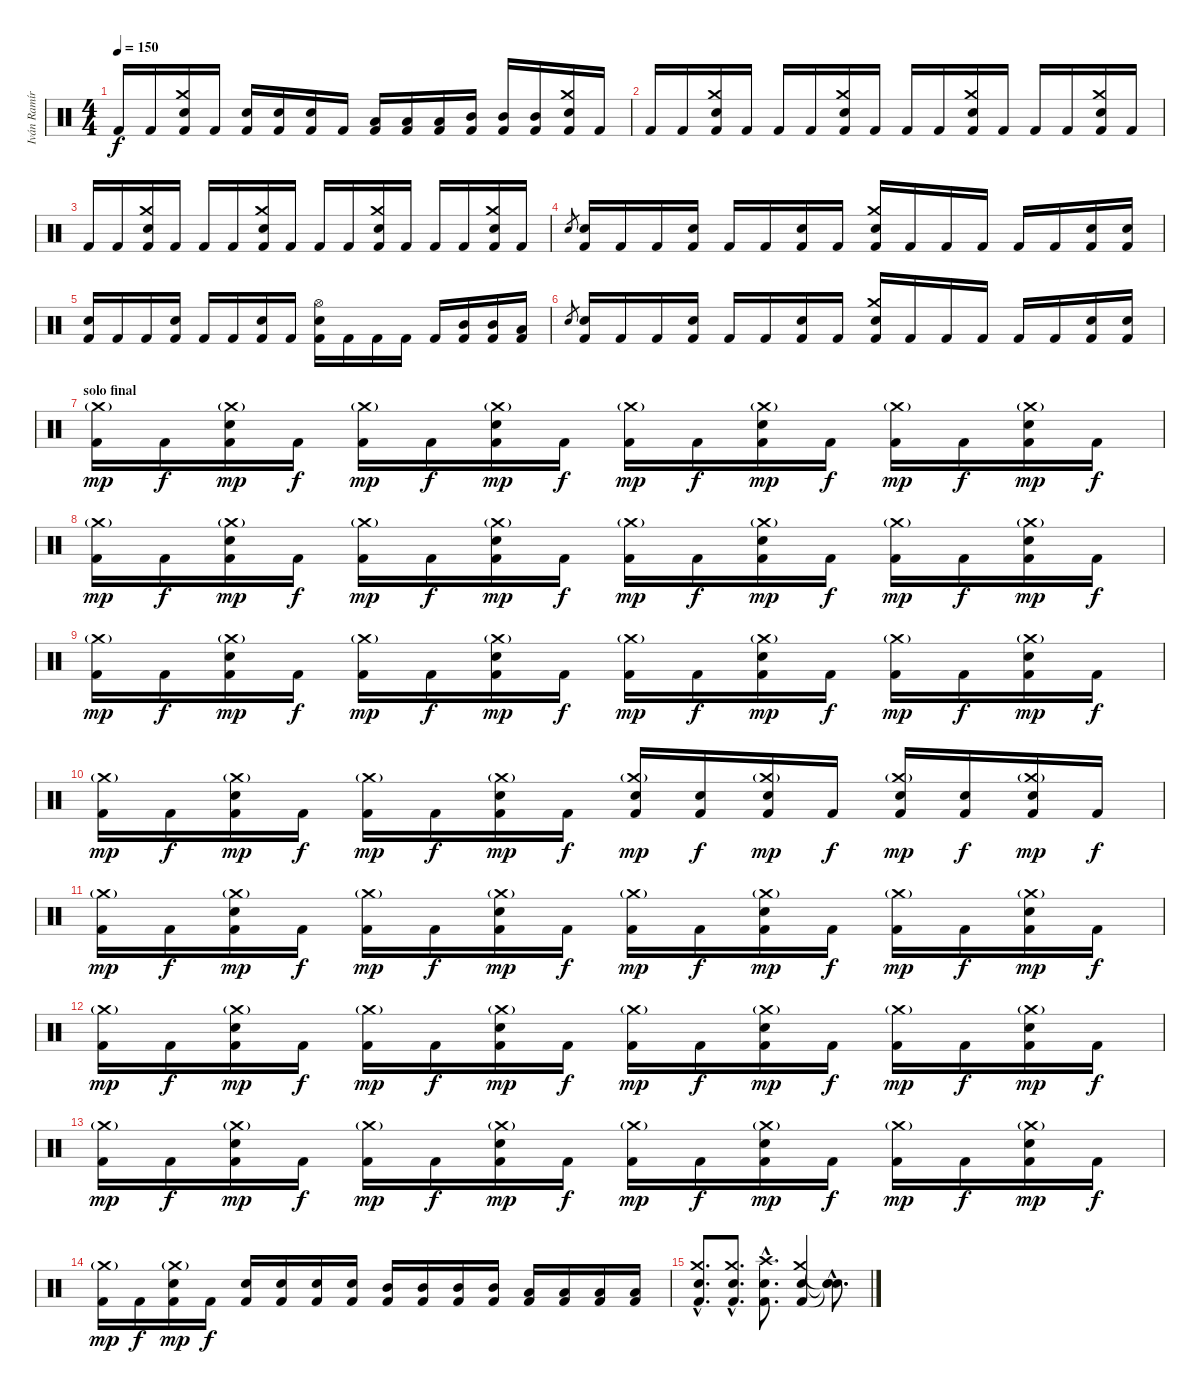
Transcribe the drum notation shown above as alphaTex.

\track ("Iván Ramírez" "Iván Ramír") {instrument percussion}
\staff {score}
\articulation defaults
\ts (4 4)
\tempo 150
\clef neutral
\ks c "Kick (hit) 2".16{dy f} "Kick (hit) 2".16
("Crash medium (hit)" "Electric Snare (hit)" "Kick (hit) 2").16 "Kick (hit) 2".16 ("Electric Snare (hit)" "Kick (hit) 2").16 ("Electric Snare (hit)" "Kick (hit) 2").16 ("Electric Snare (hit)" "Kick (hit) 2").16 "Kick (hit) 2".16 ("Low Tom (hit)" "Kick (hit) 2").16 ("Low Tom (hit)" "Kick (hit) 2").16 ("Low Tom (hit)" "Kick (hit) 2").16 ("Mid Tom (hit)" "Kick (hit) 2").16 ("Mid Tom (hit)" "Kick (hit) 2").16 ("Mid Tom (hit)" "Kick (hit) 2").16 ("Crash medium (hit)" "Electric Snare (hit)" "Kick (hit) 2").16 "Kick (hit) 2".16 |
"Kick (hit) 2".16 "Kick (hit) 2".16 ("Crash medium (hit)" "Electric Snare (hit)" "Kick (hit) 2").16 "Kick (hit) 2".16 "Kick (hit) 2".16 "Kick (hit) 2".16 ("Crash medium (hit)" "Electric Snare (hit)" "Kick (hit) 2").16 "Kick (hit) 2".16 "Kick (hit) 2".16 "Kick (hit) 2".16 ("Crash medium (hit)" "Electric Snare (hit)" "Kick (hit) 2").16 "Kick (hit) 2".16 "Kick (hit) 2".16 "Kick (hit) 2".16 ("Crash medium (hit)" "Electric Snare (hit)" "Kick (hit) 2").16 "Kick (hit) 2".16 |
"Kick (hit) 2".16 "Kick (hit) 2".16 ("Crash medium (hit)" "Electric Snare (hit)" "Kick (hit) 2").16 "Kick (hit) 2".16 "Kick (hit) 2".16 "Kick (hit) 2".16 ("Crash medium (hit)" "Electric Snare (hit)" "Kick (hit) 2").16 "Kick (hit) 2".16 "Kick (hit) 2".16 "Kick (hit) 2".16 ("Crash medium (hit)" "Electric Snare (hit)" "Kick (hit) 2").16 "Kick (hit) 2".16 "Kick (hit) 2".16 "Kick (hit) 2".16 ("Crash medium (hit)" "Electric Snare (hit)" "Kick (hit) 2").16 "Kick (hit) 2".16 |
"Electric Snare (hit)".8{gr} ("Electric Snare (hit)" "Kick (hit) 2").16 "Kick (hit) 2".16 "Kick (hit) 2".16 ("Electric Snare (hit)" "Kick (hit) 2").16 "Kick (hit) 2".16 "Kick (hit) 2".16 ("Electric Snare (hit)" "Kick (hit) 2").16 "Kick (hit) 2".16 ("Crash medium (hit)" "Electric Snare (hit)" "Kick (hit) 2").16 "Kick (hit) 2".16 "Kick (hit) 2".16 "Kick (hit) 2".16 "Kick (hit) 2".16 "Kick (hit) 2".16 ("Electric Snare (hit)" "Kick (hit) 2").16 ("Electric Snare (hit)" "Kick (hit) 2").16 |
("Electric Snare (hit)" "Kick (hit) 2").16 "Kick (hit) 2".16 "Kick (hit) 2".16 ("Electric Snare (hit)" "Kick (hit) 2").16 "Kick (hit) 2".16 "Kick (hit) 2".16 ("Electric Snare (hit)" "Kick (hit) 2").16 "Kick (hit) 2".16 ("Hi-Hat (open)" "Electric Snare (hit)" "Kick (hit) 2").16 "Kick (hit) 2".16 "Kick (hit) 2".16 "Kick (hit) 2".16 "Kick (hit) 2".16 ("Mid Tom (hit)" "Kick (hit) 2").16 ("Mid Tom (hit)" "Kick (hit) 2").16 ("Low Tom (hit)" "Kick (hit) 2").16 |
"Electric Snare (hit)".8{gr} ("Electric Snare (hit)" "Kick (hit) 2").16 "Kick (hit) 2".16 "Kick (hit) 2".16 ("Electric Snare (hit)" "Kick (hit) 2").16 "Kick (hit) 2".16 "Kick (hit) 2".16 ("Electric Snare (hit)" "Kick (hit) 2").16 "Kick (hit) 2".16 ("Crash medium (hit)" "Electric Snare (hit)" "Kick (hit) 2").16 "Kick (hit) 2".16 "Kick (hit) 2".16 "Kick (hit) 2".16 "Kick (hit) 2".16 "Kick (hit) 2".16 ("Electric Snare (hit)" "Kick (hit) 2").16 ("Electric Snare (hit)" "Kick (hit) 2").16 |
\section ("" "solo final")
("Crash medium (hit)"{g} "Kick (hit) 2").16{dy mp} "Kick (hit) 2".16{dy f} ("Crash medium (hit)"{g} "Electric Snare (hit)" "Kick (hit) 2").16{dy mp} "Kick (hit) 2".16{dy f} ("Crash medium (hit)"{g} "Kick (hit) 2").16{dy mp} "Kick (hit) 2".16{dy f} ("Crash medium (hit)"{g} "Electric Snare (hit)" "Kick (hit) 2").16{dy mp} "Kick (hit) 2".16{dy f} ("Crash medium (hit)"{g} "Kick (hit) 2").16{dy mp} "Kick (hit) 2".16{dy f} ("Crash medium (hit)"{g} "Electric Snare (hit)" "Kick (hit) 2").16{dy mp} "Kick (hit) 2".16{dy f} ("Crash medium (hit)"{g} "Kick (hit) 2").16{dy mp} "Kick (hit) 2".16{dy f} ("Crash medium (hit)"{g} "Electric Snare (hit)" "Kick (hit) 2").16{dy mp} "Kick (hit) 2".16{dy f} |
("Crash medium (hit)"{g} "Kick (hit) 2").16{dy mp} "Kick (hit) 2".16{dy f} ("Crash medium (hit)"{g} "Electric Snare (hit)" "Kick (hit) 2").16{dy mp} "Kick (hit) 2".16{dy f} ("Crash medium (hit)"{g} "Kick (hit) 2").16{dy mp} "Kick (hit) 2".16{dy f} ("Crash medium (hit)"{g} "Electric Snare (hit)" "Kick (hit) 2").16{dy mp} "Kick (hit) 2".16{dy f} ("Crash medium (hit)"{g} "Kick (hit) 2").16{dy mp} "Kick (hit) 2".16{dy f} ("Crash medium (hit)"{g} "Electric Snare (hit)" "Kick (hit) 2").16{dy mp} "Kick (hit) 2".16{dy f} ("Crash medium (hit)"{g} "Kick (hit) 2").16{dy mp} "Kick (hit) 2".16{dy f} ("Crash medium (hit)"{g} "Electric Snare (hit)" "Kick (hit) 2").16{dy mp} "Kick (hit) 2".16{dy f} |
("Crash medium (hit)"{g} "Kick (hit) 2").16{dy mp} "Kick (hit) 2".16{dy f} ("Crash medium (hit)"{g} "Electric Snare (hit)" "Kick (hit) 2").16{dy mp} "Kick (hit) 2".16{dy f} ("Crash medium (hit)"{g} "Kick (hit) 2").16{dy mp} "Kick (hit) 2".16{dy f} ("Crash medium (hit)"{g} "Electric Snare (hit)" "Kick (hit) 2").16{dy mp} "Kick (hit) 2".16{dy f} ("Crash medium (hit)"{g} "Kick (hit) 2").16{dy mp} "Kick (hit) 2".16{dy f} ("Crash medium (hit)"{g} "Electric Snare (hit)" "Kick (hit) 2").16{dy mp} "Kick (hit) 2".16{dy f} ("Crash medium (hit)"{g} "Kick (hit) 2").16{dy mp} "Kick (hit) 2".16{dy f} ("Crash medium (hit)"{g} "Electric Snare (hit)" "Kick (hit) 2").16{dy mp} "Kick (hit) 2".16{dy f} |
("Crash medium (hit)"{g} "Kick (hit) 2").16{dy mp} "Kick (hit) 2".16{dy f} ("Crash medium (hit)"{g} "Electric Snare (hit)" "Kick (hit) 2").16{dy mp} "Kick (hit) 2".16{dy f} ("Crash medium (hit)"{g} "Kick (hit) 2").16{dy mp} "Kick (hit) 2".16{dy f} ("Crash medium (hit)"{g} "Electric Snare (hit)" "Kick (hit) 2").16{dy mp} "Kick (hit) 2".16{dy f} ("Crash medium (hit)"{g} "Electric Snare (hit)" "Kick (hit) 2").16{dy mp} ("Electric Snare (hit)" "Kick (hit) 2").16{dy f} ("Crash medium (hit)"{g} "Electric Snare (hit)" "Kick (hit) 2").16{dy mp} "Kick (hit) 2".16{dy f} ("Crash medium (hit)"{g} "Electric Snare (hit)" "Kick (hit) 2").16{dy mp} ("Electric Snare (hit)" "Kick (hit) 2").16{dy f} ("Crash medium (hit)"{g} "Electric Snare (hit)" "Kick (hit) 2").16{dy mp} "Kick (hit) 2".16{dy f} |
("Crash medium (hit)"{g} "Kick (hit) 2").16{dy mp} "Kick (hit) 2".16{dy f} ("Crash medium (hit)"{g} "Electric Snare (hit)" "Kick (hit) 2").16{dy mp} "Kick (hit) 2".16{dy f} ("Crash medium (hit)"{g} "Kick (hit) 2").16{dy mp} "Kick (hit) 2".16{dy f} ("Crash medium (hit)"{g} "Electric Snare (hit)" "Kick (hit) 2").16{dy mp} "Kick (hit) 2".16{dy f} ("Crash medium (hit)"{g} "Kick (hit) 2").16{dy mp} "Kick (hit) 2".16{dy f} ("Crash medium (hit)"{g} "Electric Snare (hit)" "Kick (hit) 2").16{dy mp} "Kick (hit) 2".16{dy f} ("Crash medium (hit)"{g} "Kick (hit) 2").16{dy mp} "Kick (hit) 2".16{dy f} ("Crash medium (hit)"{g} "Electric Snare (hit)" "Kick (hit) 2").16{dy mp} "Kick (hit) 2".16{dy f} |
("Crash medium (hit)"{g} "Kick (hit) 2").16{dy mp} "Kick (hit) 2".16{dy f} ("Crash medium (hit)"{g} "Electric Snare (hit)" "Kick (hit) 2").16{dy mp} "Kick (hit) 2".16{dy f} ("Crash medium (hit)"{g} "Kick (hit) 2").16{dy mp} "Kick (hit) 2".16{dy f} ("Crash medium (hit)"{g} "Electric Snare (hit)" "Kick (hit) 2").16{dy mp} "Kick (hit) 2".16{dy f} ("Crash medium (hit)"{g} "Kick (hit) 2").16{dy mp} "Kick (hit) 2".16{dy f} ("Crash medium (hit)"{g} "Electric Snare (hit)" "Kick (hit) 2").16{dy mp} "Kick (hit) 2".16{dy f} ("Crash medium (hit)"{g} "Kick (hit) 2").16{dy mp} "Kick (hit) 2".16{dy f} ("Crash medium (hit)"{g} "Electric Snare (hit)" "Kick (hit) 2").16{dy mp} "Kick (hit) 2".16{dy f} |
("Crash medium (hit)"{g} "Kick (hit) 2").16{dy mp} "Kick (hit) 2".16{dy f} ("Crash medium (hit)"{g} "Electric Snare (hit)" "Kick (hit) 2").16{dy mp} "Kick (hit) 2".16{dy f} ("Crash medium (hit)"{g} "Kick (hit) 2").16{dy mp} "Kick (hit) 2".16{dy f} ("Crash medium (hit)"{g} "Electric Snare (hit)" "Kick (hit) 2").16{dy mp} "Kick (hit) 2".16{dy f} ("Crash medium (hit)"{g} "Kick (hit) 2").16{dy mp} "Kick (hit) 2".16{dy f} ("Crash medium (hit)"{g} "Electric Snare (hit)" "Kick (hit) 2").16{dy mp} "Kick (hit) 2".16{dy f} ("Crash medium (hit)"{g} "Kick (hit) 2").16{dy mp} "Kick (hit) 2".16{dy f} ("Crash medium (hit)"{g} "Electric Snare (hit)" "Kick (hit) 2").16{dy mp} "Kick (hit) 2".16{dy f} |
("Crash medium (hit)"{g} "Kick (hit) 2").16{dy mp} "Kick (hit) 2".16{dy f} ("Crash medium (hit)"{g} "Electric Snare (hit)" "Kick (hit) 2").16{dy mp} "Kick (hit) 2".16{dy f} ("Electric Snare (hit)" "Kick (hit) 2").16 ("Electric Snare (hit)" "Kick (hit) 2").16 ("Electric Snare (hit)" "Kick (hit) 2").16 ("Electric Snare (hit)" "Kick (hit) 2").16 ("Mid Tom (hit)" "Kick (hit) 2").16 ("Mid Tom (hit)" "Kick (hit) 2").16 ("Mid Tom (hit)" "Kick (hit) 2").16 ("Mid Tom (hit)" "Kick (hit) 2").16 ("Low Tom (hit)" "Kick (hit) 2").16 ("Low Tom (hit)" "Kick (hit) 2").16 ("Low Tom (hit)" "Kick (hit) 2").16 ("Low Tom (hit)" "Kick (hit) 2").16 |
("Crash medium (hit)"{hac} "Electric Snare (hit)"{hac} "Kick (hit) 2"{hac}).8{d} ("Crash medium (hit)"{hac} "Electric Snare (hit)"{hac} "Kick (hit) 2"{hac}).8{d} ("Crash high (hit)"{hac} "Electric Snare (hit)"{hac} "Kick (hit) 2"{hac}).8{d} ("Crash medium (hit)" "Electric Snare (hit)" "Kick (hit) 2").4 ("Snare (hit)"{hac t} "Snare (hit)"{hac t} "Snare (hit)"{hac t}).8{d}
